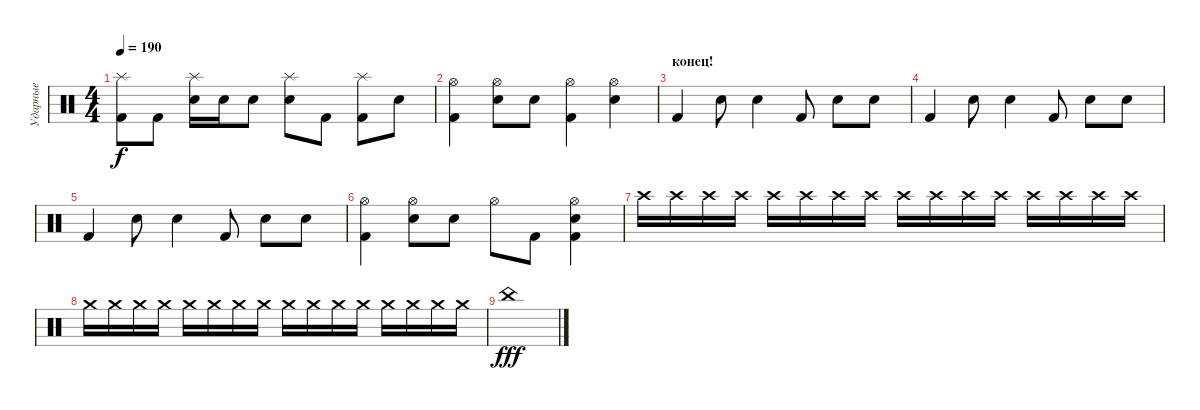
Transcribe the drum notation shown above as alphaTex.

\track ("Ударные" "Ударные") {instrument percussion}
\staff {score}
\articulation defaults
\ts (4 4)
\tempo 190
\clef neutral
\ks c
("Splash (hit)" "Kick (hit) 2").8{dy f} "Kick (hit) 2".8 ("Splash (hit)" "Electric Snare (hit)").16 "Electric Snare (hit)".16 "Electric Snare (hit)".8 ("Splash (hit)" "Electric Snare (hit)").8 "Kick (hit) 2".8 ("Splash (hit)" "Kick (hit) 2").8 "Electric Snare (hit)".8 |
("Hi-Hat (open)" "Kick (hit) 2").4 ("Hi-Hat (open)" "Electric Snare (hit)").8 "Electric Snare (hit)".8 ("Hi-Hat (open)" "Kick (hit) 2").4 ("Hi-Hat (open)" "Electric Snare (hit)").4 |
\section ("" "конец!")
"Kick (hit) 2".4 "Electric Snare (hit)".8 "Electric Snare (hit)".4 "Kick (hit) 2".8 "Electric Snare (hit)".8 "Electric Snare (hit)".8 |
"Kick (hit) 2".4 "Electric Snare (hit)".8 "Electric Snare (hit)".4 "Kick (hit) 2".8 "Electric Snare (hit)".8 "Electric Snare (hit)".8 |
"Kick (hit) 2".4 "Electric Snare (hit)".8 "Electric Snare (hit)".4 "Kick (hit) 2".8 "Electric Snare (hit)".8 "Electric Snare (hit)".8 |
("Hi-Hat (open)" "Kick (hit) 2").4 ("Hi-Hat (open)" "Electric Snare (hit)").8 "Electric Snare (hit)".8 "Hi-Hat (open)".8 "Kick (hit) 2".8 ("Hi-Hat (open)" "Electric Snare (hit)" "Kick (hit) 2").4 |
"Crash high (hit)".16 "Crash high (hit)".16 "Crash high (hit)".16 "Crash high (hit)".16 "Crash high (hit)".16 "Crash high (hit)".16 "Crash high (hit)".16 "Crash high (hit)".16 "Crash high (hit)".16 "Crash high (hit)".16 "Crash high (hit)".16 "Crash high (hit)".16 "Crash high (hit)".16 "Crash high (hit)".16 "Crash high (hit)".16 "Crash high (hit)".16 |
"Crash medium (hit)".16 "Crash medium (hit)".16 "Crash medium (hit)".16 "Crash medium (hit)".16 "Crash medium (hit)".16 "Crash medium (hit)".16 "Crash medium (hit)".16 "Crash medium (hit)".16 "Crash medium (hit)".16 "Crash medium (hit)".16 "Crash medium (hit)".16 "Crash medium (hit)".16 "Crash medium (hit)".16 "Crash medium (hit)".16 "Crash medium (hit)".16 "Crash medium (hit)".16 |
"China (hit)".1{dy fff}
